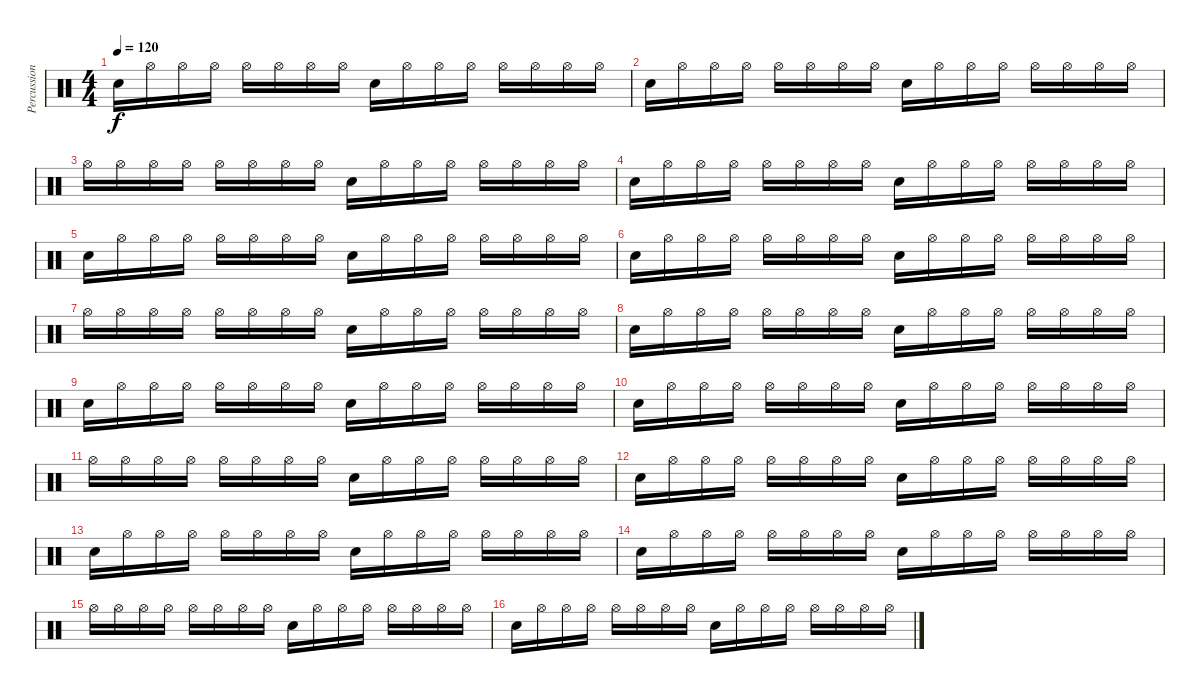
\track ("Percussion" "Percussion") {instrument percussion}
\staff {score}
\articulation defaults
\ts (4 4)
\tempo 120
\clef neutral
\ks c "Electric Snare (hit)".16{dy f} "Hi-Hat (open)".16 "Hi-Hat (open)".16 "Hi-Hat (open)".16 "Hi-Hat (open)".16 "Hi-Hat (open)".16 "Hi-Hat (open)".16 "Hi-Hat (open)".16 "Electric Snare (hit)".16 "Hi-Hat (open)".16 "Hi-Hat (open)".16 "Hi-Hat (open)".16 "Hi-Hat (open)".16 "Hi-Hat (open)".16 "Hi-Hat (open)".16 "Hi-Hat (open)".16
|
"Electric Snare (hit)".16 "Hi-Hat (open)".16 "Hi-Hat (open)".16 "Hi-Hat (open)".16 "Hi-Hat (open)".16 "Hi-Hat (open)".16 "Hi-Hat (open)".16 "Hi-Hat (open)".16 "Electric Snare (hit)".16 "Hi-Hat (open)".16 "Hi-Hat (open)".16 "Hi-Hat (open)".16 "Hi-Hat (open)".16 "Hi-Hat (open)".16 "Hi-Hat (open)".16 "Hi-Hat (open)".16 |
"Hi-Hat (open)".16 "Hi-Hat (open)".16 "Hi-Hat (open)".16 "Hi-Hat (open)".16 "Hi-Hat (open)".16 "Hi-Hat (open)".16 "Hi-Hat (open)".16 "Hi-Hat (open)".16 "Electric Snare (hit)".16 "Hi-Hat (open)".16 "Hi-Hat (open)".16 "Hi-Hat (open)".16 "Hi-Hat (open)".16 "Hi-Hat (open)".16 "Hi-Hat (open)".16 "Hi-Hat (open)".16 |
"Electric Snare (hit)".16 "Hi-Hat (open)".16 "Hi-Hat (open)".16 "Hi-Hat (open)".16 "Hi-Hat (open)".16 "Hi-Hat (open)".16 "Hi-Hat (open)".16 "Hi-Hat (open)".16 "Electric Snare (hit)".16 "Hi-Hat (open)".16 "Hi-Hat (open)".16 "Hi-Hat (open)".16 "Hi-Hat (open)".16 "Hi-Hat (open)".16 "Hi-Hat (open)".16 "Hi-Hat (open)".16 |
"Electric Snare (hit)".16 "Hi-Hat (open)".16 "Hi-Hat (open)".16 "Hi-Hat (open)".16 "Hi-Hat (open)".16 "Hi-Hat (open)".16 "Hi-Hat (open)".16 "Hi-Hat (open)".16 "Electric Snare (hit)".16 "Hi-Hat (open)".16 "Hi-Hat (open)".16 "Hi-Hat (open)".16 "Hi-Hat (open)".16 "Hi-Hat (open)".16 "Hi-Hat (open)".16 "Hi-Hat (open)".16 |
"Electric Snare (hit)".16 "Hi-Hat (open)".16 "Hi-Hat (open)".16 "Hi-Hat (open)".16 "Hi-Hat (open)".16 "Hi-Hat (open)".16 "Hi-Hat (open)".16 "Hi-Hat (open)".16 "Electric Snare (hit)".16 "Hi-Hat (open)".16 "Hi-Hat (open)".16 "Hi-Hat (open)".16 "Hi-Hat (open)".16 "Hi-Hat (open)".16 "Hi-Hat (open)".16 "Hi-Hat (open)".16 |
"Hi-Hat (open)".16 "Hi-Hat (open)".16 "Hi-Hat (open)".16 "Hi-Hat (open)".16 "Hi-Hat (open)".16 "Hi-Hat (open)".16 "Hi-Hat (open)".16 "Hi-Hat (open)".16 "Electric Snare (hit)".16 "Hi-Hat (open)".16 "Hi-Hat (open)".16 "Hi-Hat (open)".16 "Hi-Hat (open)".16 "Hi-Hat (open)".16 "Hi-Hat (open)".16 "Hi-Hat (open)".16 |
"Electric Snare (hit)".16 "Hi-Hat (open)".16 "Hi-Hat (open)".16 "Hi-Hat (open)".16 "Hi-Hat (open)".16 "Hi-Hat (open)".16 "Hi-Hat (open)".16 "Hi-Hat (open)".16 "Electric Snare (hit)".16 "Hi-Hat (open)".16 "Hi-Hat (open)".16 "Hi-Hat (open)".16 "Hi-Hat (open)".16 "Hi-Hat (open)".16 "Hi-Hat (open)".16 "Hi-Hat (open)".16 |
"Electric Snare (hit)".16 "Hi-Hat (open)".16 "Hi-Hat (open)".16 "Hi-Hat (open)".16 "Hi-Hat (open)".16 "Hi-Hat (open)".16 "Hi-Hat (open)".16 "Hi-Hat (open)".16 "Electric Snare (hit)".16 "Hi-Hat (open)".16 "Hi-Hat (open)".16 "Hi-Hat (open)".16 "Hi-Hat (open)".16 "Hi-Hat (open)".16 "Hi-Hat (open)".16 "Hi-Hat (open)".16 |
"Electric Snare (hit)".16 "Hi-Hat (open)".16 "Hi-Hat (open)".16 "Hi-Hat (open)".16 "Hi-Hat (open)".16 "Hi-Hat (open)".16 "Hi-Hat (open)".16 "Hi-Hat (open)".16 "Electric Snare (hit)".16 "Hi-Hat (open)".16 "Hi-Hat (open)".16 "Hi-Hat (open)".16 "Hi-Hat (open)".16 "Hi-Hat (open)".16 "Hi-Hat (open)".16 "Hi-Hat (open)".16 |
"Hi-Hat (open)".16 "Hi-Hat (open)".16 "Hi-Hat (open)".16 "Hi-Hat (open)".16 "Hi-Hat (open)".16 "Hi-Hat (open)".16 "Hi-Hat (open)".16 "Hi-Hat (open)".16 "Electric Snare (hit)".16 "Hi-Hat (open)".16 "Hi-Hat (open)".16 "Hi-Hat (open)".16 "Hi-Hat (open)".16 "Hi-Hat (open)".16 "Hi-Hat (open)".16 "Hi-Hat (open)".16 |
"Electric Snare (hit)".16 "Hi-Hat (open)".16 "Hi-Hat (open)".16 "Hi-Hat (open)".16 "Hi-Hat (open)".16 "Hi-Hat (open)".16 "Hi-Hat (open)".16 "Hi-Hat (open)".16 "Electric Snare (hit)".16 "Hi-Hat (open)".16 "Hi-Hat (open)".16 "Hi-Hat (open)".16 "Hi-Hat (open)".16 "Hi-Hat (open)".16 "Hi-Hat (open)".16 "Hi-Hat (open)".16 |
"Electric Snare (hit)".16 "Hi-Hat (open)".16 "Hi-Hat (open)".16 "Hi-Hat (open)".16 "Hi-Hat (open)".16 "Hi-Hat (open)".16 "Hi-Hat (open)".16 "Hi-Hat (open)".16 "Electric Snare (hit)".16 "Hi-Hat (open)".16 "Hi-Hat (open)".16 "Hi-Hat (open)".16 "Hi-Hat (open)".16 "Hi-Hat (open)".16 "Hi-Hat (open)".16 "Hi-Hat (open)".16 |
"Electric Snare (hit)".16 "Hi-Hat (open)".16 "Hi-Hat (open)".16 "Hi-Hat (open)".16 "Hi-Hat (open)".16 "Hi-Hat (open)".16 "Hi-Hat (open)".16 "Hi-Hat (open)".16 "Electric Snare (hit)".16 "Hi-Hat (open)".16 "Hi-Hat (open)".16 "Hi-Hat (open)".16 "Hi-Hat (open)".16 "Hi-Hat (open)".16 "Hi-Hat (open)".16 "Hi-Hat (open)".16 |
"Hi-Hat (open)".16 "Hi-Hat (open)".16 "Hi-Hat (open)".16 "Hi-Hat (open)".16 "Hi-Hat (open)".16 "Hi-Hat (open)".16 "Hi-Hat (open)".16 "Hi-Hat (open)".16 "Electric Snare (hit)".16 "Hi-Hat (open)".16 "Hi-Hat (open)".16 "Hi-Hat (open)".16 "Hi-Hat (open)".16 "Hi-Hat (open)".16 "Hi-Hat (open)".16 "Hi-Hat (open)".16 |
"Electric Snare (hit)".16 "Hi-Hat (open)".16 "Hi-Hat (open)".16 "Hi-Hat (open)".16 "Hi-Hat (open)".16 "Hi-Hat (open)".16 "Hi-Hat (open)".16 "Hi-Hat (open)".16 "Electric Snare (hit)".16 "Hi-Hat (open)".16 "Hi-Hat (open)".16 "Hi-Hat (open)".16 "Hi-Hat (open)".16 "Hi-Hat (open)".16 "Hi-Hat (open)".16 "Hi-Hat (open)".16
